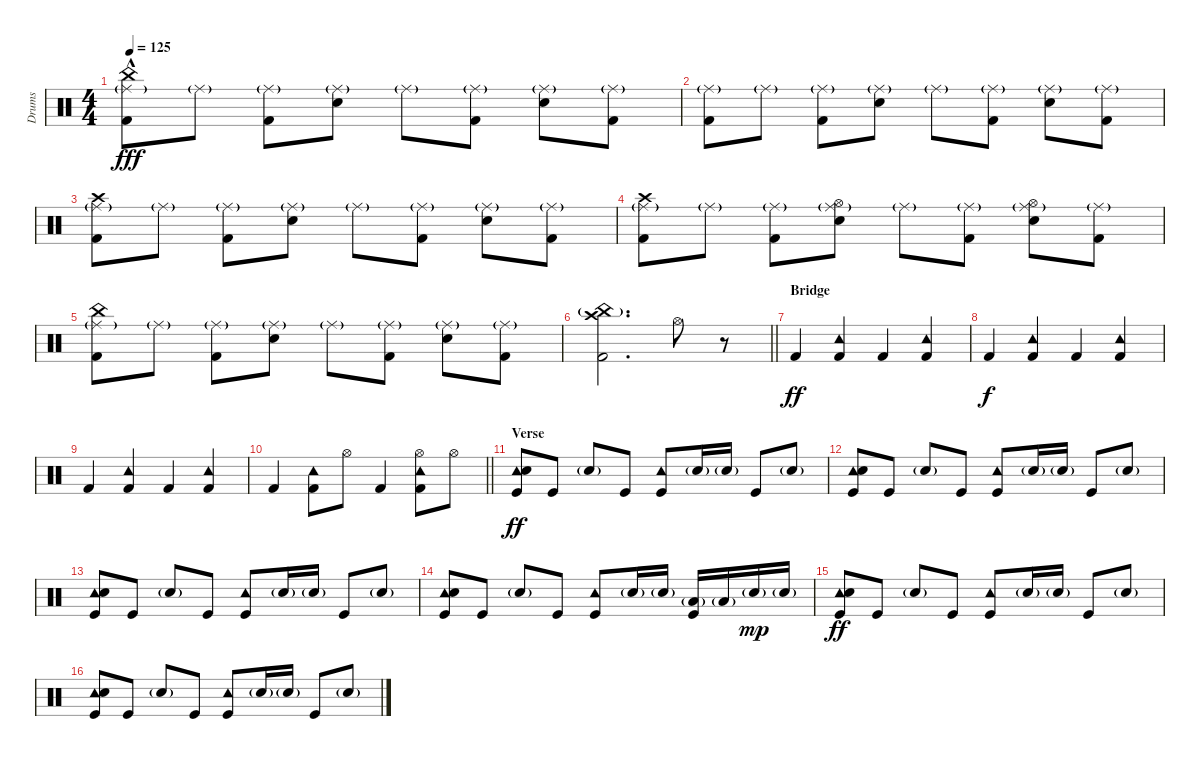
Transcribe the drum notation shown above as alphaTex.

\track ("Drums" "Drums") {instrument percussion}
\staff
\articulation defaults
\ts (4 4)
\tempo 125
\clef neutral
\ks c
("China (hit)"{hac} "Kick (hit) 2" "Ride (middle)"{g}).8{dy fff} "Ride (middle)"{g}.8 ("Kick (hit) 2" "Ride (middle)"{g}).8 ("Snare (hit) 2" "Ride (middle)"{g}).8 "Ride (middle)"{g}.8 ("Kick (hit) 2" "Ride (middle)"{g}).8 ("Snare (hit) 2" "Ride (middle)"{g}).8 ("Kick (hit) 2" "Ride (middle)"{g}).8 |
("Kick (hit) 2" "Ride (middle)"{g}).8 "Ride (middle)"{g}.8 ("Kick (hit) 2" "Ride (middle)"{g}).8 ("Snare (hit) 2" "Ride (middle)"{g}).8 "Ride (middle)"{g}.8 ("Kick (hit) 2" "Ride (middle)"{g}).8 ("Snare (hit) 2" "Ride (middle)"{g}).8 ("Kick (hit) 2" "Ride (middle)"{g}).8 |
("Crash high (hit)" "Kick (hit) 2" "Ride (middle)"{g}).8 "Ride (middle)"{g}.8 ("Kick (hit) 2" "Ride (middle)"{g}).8 ("Snare (hit) 2" "Ride (middle)"{g}).8 "Ride (middle)"{g}.8 ("Kick (hit) 2" "Ride (middle)"{g}).8 ("Snare (hit) 2" "Ride (middle)"{g}).8 ("Kick (hit) 2" "Ride (middle)"{g}).8 |
("Crash high (hit)" "Kick (hit) 2" "Ride (middle)"{g}).8 "Ride (middle)"{g}.8 ("Kick (hit) 2" "Ride (middle)"{g}).8 ("Snare (hit) 2" "Hi-Hat (open)" "Ride (middle)"{g}).8 "Ride (middle)"{g}.8 ("Kick (hit) 2" "Ride (middle)"{g}).8 ("Snare (hit) 2" "Hi-Hat (open)" "Ride (middle)"{g}).8 ("Kick (hit) 2" "Ride (middle)"{g}).8 |
("China (hit)" "Kick (hit) 2" "Ride (middle)"{g}).8 "Ride (middle)"{g}.8 ("Kick (hit) 2" "Ride (middle)"{g}).8 ("Snare (hit) 2" "Ride (middle)"{g}).8 "Ride (middle)"{g}.8 ("Kick (hit) 2" "Ride (middle)"{g}).8 ("Snare (hit) 2" "Ride (middle)"{g}).8 ("Kick (hit) 2" "Ride (middle)"{g}).8 |
\barLineRight lightlight
("Crash high (hit)" "Kick (hit) 2" "China (hit)"{g}).2{d} "Hi-Hat (open)".8 r.8 |
\section ("" "Bridge")
"Kick (hit) 2".4{dy ff} ("Tambourine (hit)" "Kick (hit) 2").4 "Kick (hit) 2".4 ("Tambourine (hit)" "Kick (hit) 2").4 |
"Kick (hit) 2".4{dy f} ("Tambourine (hit)" "Kick (hit) 2").4 "Kick (hit) 2".4 ("Tambourine (hit)" "Kick (hit) 2").4 |
"Kick (hit) 2".4 ("Tambourine (hit)" "Kick (hit) 2").4 "Kick (hit) 2".4 ("Tambourine (hit)" "Kick (hit) 2").4 |
\barLineRight lightlight "Kick (hit) 2".4
("Tambourine (hit)" "Kick (hit) 2").8 "Hi-Hat (open)".8 "Kick (hit) 2".4 ("Hi-Hat (open)" "Tambourine (hit)" "Kick (hit) 2").8 "Hi-Hat (open)".8 |
\section ("" "Verse")
("Kick (hit)" "Tambourine (hit)" "Snare (hit)").8{dy ff} "Kick (hit)".8 "Snare (hit) 2"{g}.8 "Kick (hit)".8 ("Kick (hit)" "Tambourine (hit)").8 "Snare (hit) 2"{g}.16 "Snare (hit) 2"{g}.16 "Kick (hit)".8 "Snare (hit) 2"{g}.8 |
("Kick (hit)" "Tambourine (hit)" "Snare (hit)").8 "Kick (hit)".8 "Snare (hit) 2"{g}.8 "Kick (hit)".8 ("Kick (hit)" "Tambourine (hit)").8 "Snare (hit) 2"{g}.16 "Snare (hit) 2"{g}.16 "Kick (hit)".8 "Snare (hit) 2"{g}.8 |
("Kick (hit)" "Tambourine (hit)" "Snare (hit)").8 "Kick (hit)".8 "Snare (hit) 2"{g}.8 "Kick (hit)".8 ("Kick (hit)" "Tambourine (hit)").8 "Snare (hit) 2"{g}.16 "Snare (hit) 2"{g}.16 "Kick (hit)".8 "Snare (hit) 2"{g}.8 |
("Kick (hit)" "Tambourine (hit)" "Snare (hit)").8 "Kick (hit)".8 "Snare (hit) 2"{g}.8 "Kick (hit)".8 ("Kick (hit)" "Tambourine (hit)").8 "Snare (hit) 2"{g}.16 "Snare (hit) 2"{g}.16 ("Low Tom (hit)"{g} "Kick (hit)").16 "Low Tom (hit)"{g}.16 "Snare (hit) 2"{g}.16{dy mp} "Snare (hit) 2"{g}.16 |
("Kick (hit)" "Tambourine (hit)" "Snare (hit)").8{dy ff} "Kick (hit)".8 "Snare (hit) 2"{g}.8 "Kick (hit)".8 ("Kick (hit)" "Tambourine (hit)").8 "Snare (hit) 2"{g}.16 "Snare (hit) 2"{g}.16 "Kick (hit)".8 "Snare (hit) 2"{g}.8 |
("Kick (hit)" "Tambourine (hit)" "Snare (hit)").8 "Kick (hit)".8 "Snare (hit) 2"{g}.8 "Kick (hit)".8 ("Kick (hit)" "Tambourine (hit)").8 "Snare (hit) 2"{g}.16 "Snare (hit) 2"{g}.16 "Kick (hit)".8 "Snare (hit) 2"{g}.8
